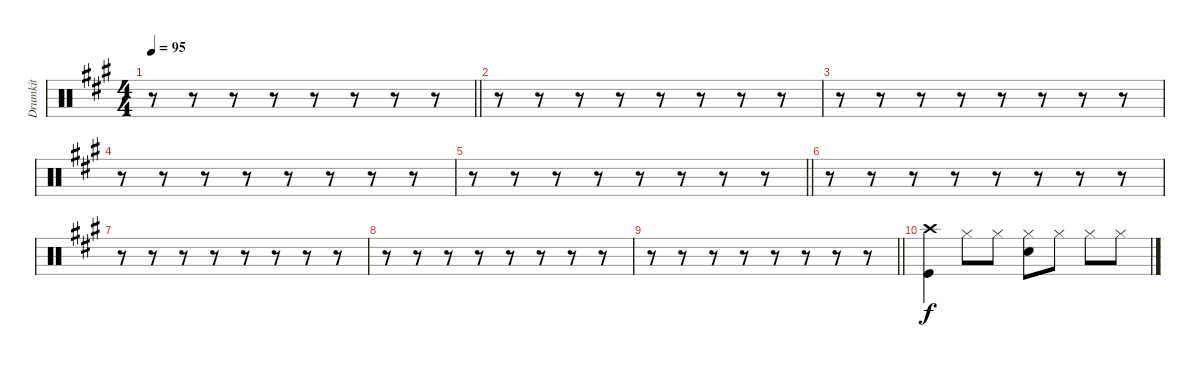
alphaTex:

\track ("Drumkit" "Drumkit") {instrument percussion}
\staff {score}
\articulation defaults
\ts (4 4)
\tempo 95
\clef neutral
\barLineRight lightlight
\ks a
r.8{dy f} r.8 r.8 r.8 r.8 r.8 r.8 r.8 |
r.8 r.8 r.8 r.8 r.8 r.8 r.8 r.8 |
r.8 r.8 r.8 r.8 r.8 r.8 r.8 r.8 |
r.8 r.8 r.8 r.8 r.8 r.8 r.8 r.8 |
\barLineRight lightlight
r.8 r.8 r.8 r.8 r.8 r.8 r.8 r.8 |
r.8 r.8 r.8 r.8 r.8 r.8 r.8 r.8 |
r.8 r.8 r.8 r.8 r.8 r.8 r.8 r.8 |
r.8 r.8 r.8 r.8 r.8 r.8 r.8 r.8 |
\barLineRight lightlight
r.8 r.8 r.8 r.8 r.8 r.8 r.8 r.8 |
("Crash high (hit)" "Kick (hit)").4 "Hi-Hat (closed)".8 "Hi-Hat (closed)".8 ("Hi-Hat (closed)" "Snare (hit) 2").8 "Hi-Hat (closed)".8 "Hi-Hat (closed)".8 "Hi-Hat (closed)".8
